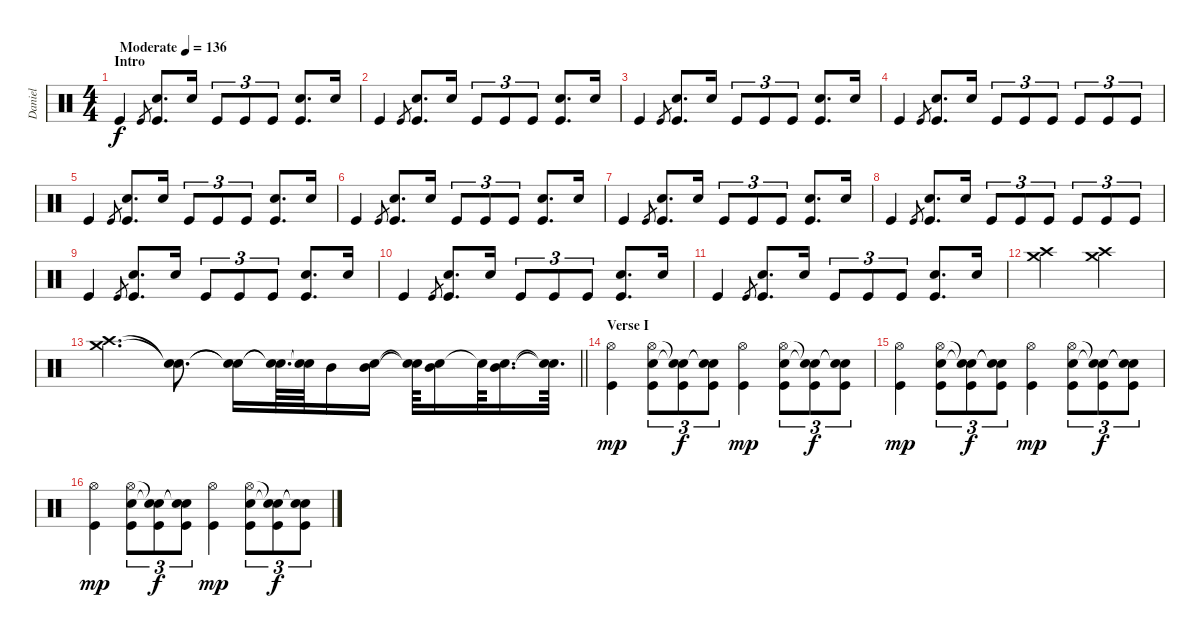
\track ("Daniel" "Daniel") {instrument percussion}
\staff {score}
\articulation defaults
\ts (4 4)
\section ("" "Intro")
\tempo (136 "Moderate")
\clef neutral
\ks c "Kick (hit)".4{dy f} "Kick (hit)"{h}.8{gr}
("Snare (hit) 2" "Kick (hit)").8{d} "Snare (hit) 2".16 "Kick (hit)".8{tu (3 2)} "Kick (hit)".8{tu (3 2)} "Kick (hit)".8{tu (3 2)} ("Snare (hit) 2" "Kick (hit)").8{d} "Snare (hit) 2".16 |
"Kick (hit)".4 "Kick (hit)"{h}.8{gr} ("Snare (hit) 2" "Kick (hit)").8{d} "Snare (hit) 2".16 "Kick (hit)".8{tu (3 2)} "Kick (hit)".8{tu (3 2)} "Kick (hit)".8{tu (3 2)} ("Snare (hit) 2" "Kick (hit)").8{d} "Snare (hit) 2".16 |
"Kick (hit)".4 "Kick (hit)"{h}.8{gr} ("Snare (hit) 2" "Kick (hit)").8{d} "Snare (hit) 2".16 "Kick (hit)".8{tu (3 2)} "Kick (hit)".8{tu (3 2)} "Kick (hit)".8{tu (3 2)} ("Snare (hit) 2" "Kick (hit)").8{d} "Snare (hit) 2".16 |
"Kick (hit)".4 "Kick (hit)"{h}.8{gr} ("Snare (hit) 2" "Kick (hit)").8{d} "Snare (hit) 2".16 "Kick (hit)".8{tu (3 2)} "Kick (hit)".8{tu (3 2)} "Kick (hit)".8{tu (3 2)} "Kick (hit)".8{tu (3 2)} "Kick (hit)".8{tu (3 2)} "Kick (hit)".8{tu (3 2)} |
"Kick (hit)".4 "Kick (hit)"{h}.8{gr} ("Snare (hit) 2" "Kick (hit)").8{d} "Snare (hit) 2".16 "Kick (hit)".8{tu (3 2)} "Kick (hit)".8{tu (3 2)} "Kick (hit)".8{tu (3 2)} ("Snare (hit) 2" "Kick (hit)").8{d} "Snare (hit) 2".16 |
"Kick (hit)".4 "Kick (hit)"{h}.8{gr} ("Snare (hit) 2" "Kick (hit)").8{d} "Snare (hit) 2".16 "Kick (hit)".8{tu (3 2)} "Kick (hit)".8{tu (3 2)} "Kick (hit)".8{tu (3 2)} ("Snare (hit) 2" "Kick (hit)").8{d} "Snare (hit) 2".16 |
"Kick (hit)".4 "Kick (hit)"{h}.8{gr} ("Snare (hit) 2" "Kick (hit)").8{d} "Snare (hit) 2".16 "Kick (hit)".8{tu (3 2)} "Kick (hit)".8{tu (3 2)} "Kick (hit)".8{tu (3 2)} ("Snare (hit) 2" "Kick (hit)").8{d} "Snare (hit) 2".16 |
"Kick (hit)".4 "Kick (hit)"{h}.8{gr} ("Snare (hit) 2" "Kick (hit)").8{d} "Snare (hit) 2".16 "Kick (hit)".8{tu (3 2)} "Kick (hit)".8{tu (3 2)} "Kick (hit)".8{tu (3 2)} "Kick (hit)".8{tu (3 2)} "Kick (hit)".8{tu (3 2)} "Kick (hit)".8{tu (3 2)} |
"Kick (hit)".4 "Kick (hit)"{h}.8{gr} ("Snare (hit) 2" "Kick (hit)").8{d} "Snare (hit) 2".16 "Kick (hit)".8{tu (3 2)} "Kick (hit)".8{tu (3 2)} "Kick (hit)".8{tu (3 2)} ("Snare (hit) 2" "Kick (hit)").8{d} "Snare (hit) 2".16 |
"Kick (hit)".4 "Kick (hit)"{h}.8{gr} ("Snare (hit) 2" "Kick (hit)").8{d} "Snare (hit) 2".16 "Kick (hit)".8{tu (3 2)} "Kick (hit)".8{tu (3 2)} "Kick (hit)".8{tu (3 2)} ("Snare (hit) 2" "Kick (hit)").8{d} "Snare (hit) 2".16 |
"Kick (hit)".4 "Kick (hit)"{h}.8{gr} ("Snare (hit) 2" "Kick (hit)").8{d} "Snare (hit) 2".16 "Kick (hit)".8{tu (3 2)} "Kick (hit)".8{tu (3 2)} "Kick (hit)".8{tu (3 2)} ("Snare (hit) 2" "Kick (hit)").8{d} "Snare (hit) 2".16 |
("Crash medium (hit)" "Crash high (hit)").2 ("Crash medium (hit)" "Crash high (hit)").2 |
\barLineRight lightlight
("Crash medium (hit)" "Crash high (hit)").4{d} ("Snare (hit)"{t} "Snare (hit)"{t}).8{d} ("Snare (hit)"{t} "Snare (hit)"{t}).16 ("Snare (hit)"{t} "Snare (hit)"{t}).64{d} ("Snare (hit)"{t} "Snare (hit)"{t}).64 "Mid Tom (hit)".16 ("Snare (hit) 2" "Mid Tom (hit)").16 ("Snare (hit)"{t} "Snare (hit)"{t}).64 ("Snare (hit) 2" "Mid Tom (hit)").16 "Snare (hit)"{t}.64 ("Snare (hit) 2" "Mid Tom (hit)").16{d} ("Snare (hit)"{t} "Snare (hit)"{t}).64{d} |
\section ("" "Verse I")
("Hi-Hat (open)" "Kick (hit)").4{dy mp} ("Hi-Hat (open)" "Snare (hit) 2" "Kick (hit)").8{tu (3 2)} ("Snare (hit)"{t} "Snare (hit)"{t} "Kick (hit)").8{tu (3 2) dy f} ("Snare (hit)"{t} "Snare (hit)"{t} "Kick (hit)").8{tu (3 2)} ("Hi-Hat (open)" "Kick (hit)").4{dy mp} ("Hi-Hat (open)" "Snare (hit) 2" "Kick (hit)").8{tu (3 2)} ("Snare (hit)"{t} "Snare (hit)"{t} "Kick (hit)").8{tu (3 2) dy f} ("Snare (hit)"{t} "Snare (hit)"{t} "Kick (hit)").8{tu (3 2)} |
("Hi-Hat (open)" "Kick (hit)").4{dy mp} ("Hi-Hat (open)" "Snare (hit) 2" "Kick (hit)").8{tu (3 2)} ("Snare (hit)"{t} "Snare (hit)"{t} "Kick (hit)").8{tu (3 2) dy f} ("Snare (hit)"{t} "Snare (hit)"{t} "Kick (hit)").8{tu (3 2)} ("Hi-Hat (open)" "Kick (hit)").4{dy mp} ("Hi-Hat (open)" "Snare (hit) 2" "Kick (hit)").8{tu (3 2)} ("Snare (hit)"{t} "Snare (hit)"{t} "Kick (hit)").8{tu (3 2) dy f} ("Snare (hit)"{t} "Snare (hit)"{t} "Kick (hit)").8{tu (3 2)} |
("Hi-Hat (open)" "Kick (hit)").4{dy mp} ("Hi-Hat (open)" "Snare (hit) 2" "Kick (hit)").8{tu (3 2)} ("Snare (hit)"{t} "Snare (hit)"{t} "Kick (hit)").8{tu (3 2) dy f} ("Snare (hit)"{t} "Snare (hit)"{t} "Kick (hit)").8{tu (3 2)} ("Hi-Hat (open)" "Kick (hit)").4{dy mp} ("Hi-Hat (open)" "Snare (hit) 2" "Kick (hit)").8{tu (3 2)} ("Snare (hit)"{t} "Snare (hit)"{t} "Kick (hit)").8{tu (3 2) dy f} ("Snare (hit)"{t} "Snare (hit)"{t} "Kick (hit)").8{tu (3 2)}
